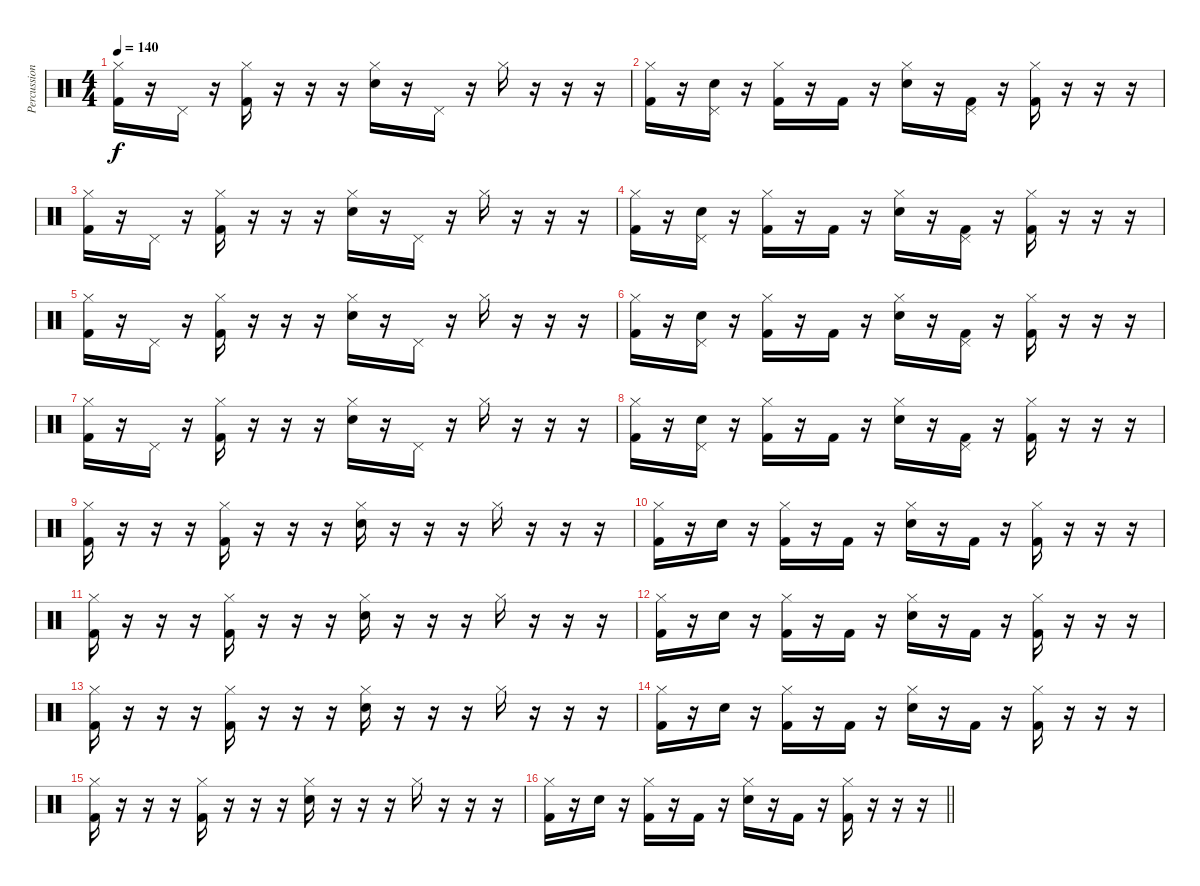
\track ("Percussion" "Percussion") {instrument percussion}
\staff {score}
\articulation defaults
\ts (4 4)
\tempo 140
\clef neutral
\ks c
("Hi-Hat (closed)" "Kick (hit) 2").16{dy f} r.16 "Pedal Hi-Hat (hit)".16 r.16 ("Hi-Hat (closed)" "Kick (hit) 2").16 r.16 r.16 r.16 ("Hi-Hat (closed)" "Snare (hit) 2").16 r.16 "Pedal Hi-Hat (hit)".16 r.16 "Hi-Hat (closed)".16 r.16 r.16 r.16 |
("Hi-Hat (closed)" "Kick (hit) 2").16 r.16 ("Pedal Hi-Hat (hit)" "Snare (hit) 2").16 r.16 ("Hi-Hat (closed)" "Kick (hit) 2").16 r.16 "Kick (hit) 2".16 r.16 ("Hi-Hat (closed)" "Snare (hit) 2").16 r.16 ("Pedal Hi-Hat (hit)" "Kick (hit) 2").16 r.16 ("Hi-Hat (closed)" "Kick (hit) 2").16 r.16 r.16 r.16 |
("Hi-Hat (closed)" "Kick (hit) 2").16 r.16 "Pedal Hi-Hat (hit)".16 r.16 ("Hi-Hat (closed)" "Kick (hit) 2").16 r.16 r.16 r.16 ("Hi-Hat (closed)" "Snare (hit) 2").16 r.16 "Pedal Hi-Hat (hit)".16 r.16 "Hi-Hat (closed)".16 r.16 r.16 r.16 |
("Hi-Hat (closed)" "Kick (hit) 2").16 r.16 ("Pedal Hi-Hat (hit)" "Snare (hit) 2").16 r.16 ("Hi-Hat (closed)" "Kick (hit) 2").16 r.16 "Kick (hit) 2".16 r.16 ("Hi-Hat (closed)" "Snare (hit) 2").16 r.16 ("Pedal Hi-Hat (hit)" "Kick (hit) 2").16 r.16 ("Hi-Hat (closed)" "Kick (hit) 2").16 r.16 r.16 r.16 |
("Hi-Hat (closed)" "Kick (hit) 2").16 r.16 "Pedal Hi-Hat (hit)".16 r.16 ("Hi-Hat (closed)" "Kick (hit) 2").16 r.16 r.16 r.16 ("Hi-Hat (closed)" "Snare (hit) 2").16 r.16 "Pedal Hi-Hat (hit)".16 r.16 "Hi-Hat (closed)".16 r.16 r.16 r.16 |
("Hi-Hat (closed)" "Kick (hit) 2").16 r.16 ("Pedal Hi-Hat (hit)" "Snare (hit) 2").16 r.16 ("Hi-Hat (closed)" "Kick (hit) 2").16 r.16 "Kick (hit) 2".16 r.16 ("Hi-Hat (closed)" "Snare (hit) 2").16 r.16 ("Pedal Hi-Hat (hit)" "Kick (hit) 2").16 r.16 ("Hi-Hat (closed)" "Kick (hit) 2").16 r.16 r.16 r.16 |
("Hi-Hat (closed)" "Kick (hit) 2").16 r.16 "Pedal Hi-Hat (hit)".16 r.16 ("Hi-Hat (closed)" "Kick (hit) 2").16 r.16 r.16 r.16 ("Hi-Hat (closed)" "Snare (hit) 2").16 r.16 "Pedal Hi-Hat (hit)".16 r.16 "Hi-Hat (closed)".16 r.16 r.16 r.16 |
("Hi-Hat (closed)" "Kick (hit) 2").16 r.16 ("Pedal Hi-Hat (hit)" "Snare (hit) 2").16 r.16 ("Hi-Hat (closed)" "Kick (hit) 2").16 r.16 "Kick (hit) 2".16 r.16 ("Hi-Hat (closed)" "Snare (hit) 2").16 r.16 ("Pedal Hi-Hat (hit)" "Kick (hit) 2").16 r.16 ("Hi-Hat (closed)" "Kick (hit) 2").16 r.16 r.16 r.16 |
("Hi-Hat (closed)" "Kick (hit) 2").16 r.16 r.16 r.16 ("Hi-Hat (closed)" "Kick (hit) 2").16 r.16 r.16 r.16 ("Hi-Hat (closed)" "Snare (hit) 2").16 r.16 r.16 r.16 "Hi-Hat (closed)".16 r.16 r.16 r.16 |
("Hi-Hat (closed)" "Kick (hit) 2").16 r.16 "Snare (hit) 2".16 r.16 ("Hi-Hat (closed)" "Kick (hit) 2").16 r.16 "Kick (hit) 2".16 r.16 ("Hi-Hat (closed)" "Snare (hit) 2").16 r.16 "Kick (hit) 2".16 r.16 ("Hi-Hat (closed)" "Kick (hit) 2").16 r.16 r.16 r.16 |
("Hi-Hat (closed)" "Kick (hit) 2").16 r.16 r.16 r.16 ("Hi-Hat (closed)" "Kick (hit) 2").16 r.16 r.16 r.16 ("Hi-Hat (closed)" "Snare (hit) 2").16 r.16 r.16 r.16 "Hi-Hat (closed)".16 r.16 r.16 r.16 |
("Hi-Hat (closed)" "Kick (hit) 2").16 r.16 "Snare (hit) 2".16 r.16 ("Hi-Hat (closed)" "Kick (hit) 2").16 r.16 "Kick (hit) 2".16 r.16 ("Hi-Hat (closed)" "Snare (hit) 2").16 r.16 "Kick (hit) 2".16 r.16 ("Hi-Hat (closed)" "Kick (hit) 2").16 r.16 r.16 r.16 |
("Hi-Hat (closed)" "Kick (hit) 2").16 r.16 r.16 r.16 ("Hi-Hat (closed)" "Kick (hit) 2").16 r.16 r.16 r.16 ("Hi-Hat (closed)" "Snare (hit) 2").16 r.16 r.16 r.16 "Hi-Hat (closed)".16 r.16 r.16 r.16 |
("Hi-Hat (closed)" "Kick (hit) 2").16 r.16 "Snare (hit) 2".16 r.16 ("Hi-Hat (closed)" "Kick (hit) 2").16 r.16 "Kick (hit) 2".16 r.16 ("Hi-Hat (closed)" "Snare (hit) 2").16 r.16 "Kick (hit) 2".16 r.16 ("Hi-Hat (closed)" "Kick (hit) 2").16 r.16 r.16 r.16 |
("Hi-Hat (closed)" "Kick (hit) 2").16 r.16 r.16 r.16 ("Hi-Hat (closed)" "Kick (hit) 2").16 r.16 r.16 r.16 ("Hi-Hat (closed)" "Snare (hit) 2").16 r.16 r.16 r.16 "Hi-Hat (closed)".16 r.16 r.16 r.16 |
\barLineRight lightlight
("Hi-Hat (closed)" "Kick (hit) 2").16 r.16 "Snare (hit) 2".16 r.16 ("Hi-Hat (closed)" "Kick (hit) 2").16 r.16 "Kick (hit) 2".16 r.16 ("Hi-Hat (closed)" "Snare (hit) 2").16 r.16 "Kick (hit) 2".16 r.16 ("Hi-Hat (closed)" "Kick (hit) 2").16 r.16 r.16 r.16
